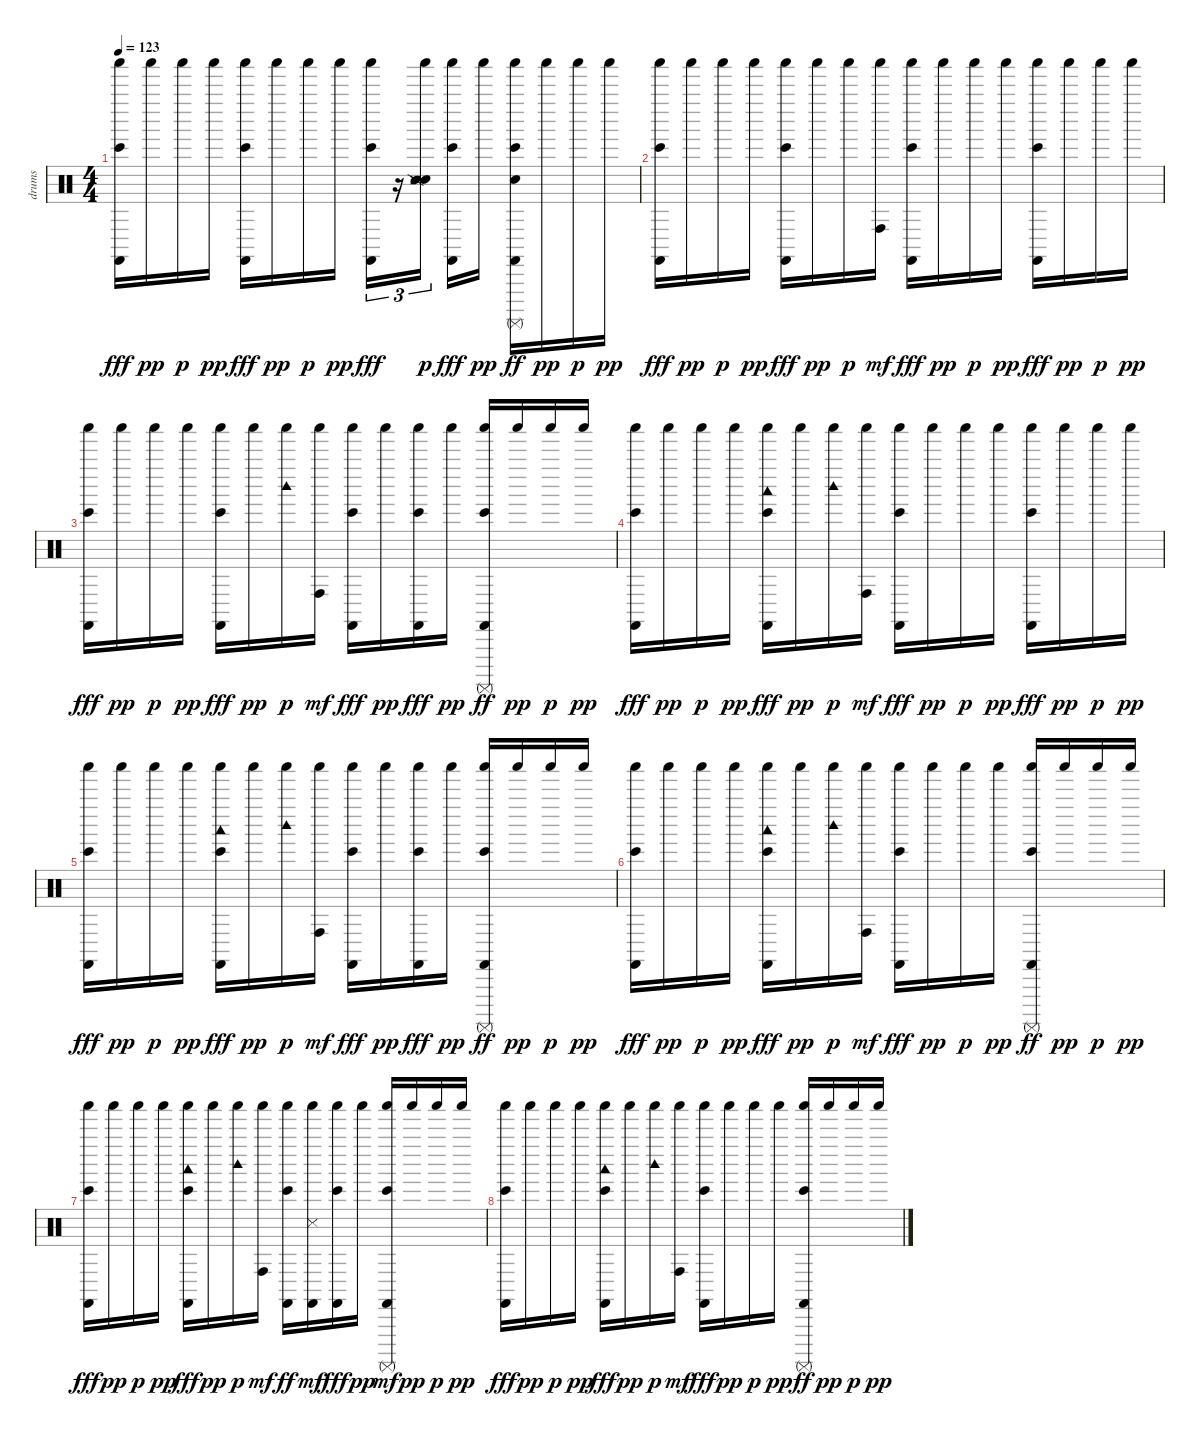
\track ("drums" "drums") {instrument percussion}
\staff {score}
\articulation defaults
\ts (4 4)
\tempo 123
\clef neutral
\ks c
("Bongo High (hit)" "Castanets (hit)" "Shaker (hit)").16{dy fff} "Shaker (hit)".16{dy pp} "Shaker (hit)".16{dy p} "Shaker (hit)".16{dy pp} ("Bongo High (hit)" "Castanets (hit)" "Shaker (hit)").16{dy fff} "Shaker (hit)".16{dy pp} "Shaker (hit)".16{dy p} "Shaker (hit)".16{dy pp} ("Bongo High (hit)" "Castanets (hit)" "Shaker (hit)").16{tu (3 2) dy fff} r.16{tu (3 2)} ("Shaker (hit)" "Electric Snare (hit)" "Snare (side stick) 3" "Snare (side stick) 2" "Metronome (hit)").16{tu (3 2) dy p beam splitsecondary} ("Bongo High (hit)" "Castanets (hit)" "Shaker (hit)").16{dy fff} "Shaker (hit)".16{dy pp} ("Bongo High (hit)" "Castanets (hit)" "Shaker (hit)" "Surdo (mute)" "Hand Clap (hit)").16{dy ff} "Shaker (hit)".16{dy pp} "Shaker (hit)".16{dy p} "Shaker (hit)".16{dy pp} |
("Bongo High (hit)" "Castanets (hit)" "Shaker (hit)").16{dy fff} "Shaker (hit)".16{dy pp} "Shaker (hit)".16{dy p} "Shaker (hit)".16{dy pp} ("Bongo High (hit)" "Castanets (hit)" "Shaker (hit)").16{dy fff} "Shaker (hit)".16{dy pp} "Shaker (hit)".16{dy p} ("Shaker (hit)" "Conga high (hit)").16{dy mf} ("Bongo High (hit)" "Castanets (hit)" "Shaker (hit)").16{dy fff} "Shaker (hit)".16{dy pp} "Shaker (hit)".16{dy p} "Shaker (hit)".16{dy pp} ("Bongo High (hit)" "Castanets (hit)" "Shaker (hit)").16{dy fff} "Shaker (hit)".16{dy pp} "Shaker (hit)".16{dy p} "Shaker (hit)".16{dy pp} |
("Bongo High (hit)" "Castanets (hit)" "Shaker (hit)").16{dy fff} "Shaker (hit)".16{dy pp} "Shaker (hit)".16{dy p} "Shaker (hit)".16{dy pp} ("Bongo High (hit)" "Castanets (hit)" "Shaker (hit)").16{dy fff} "Shaker (hit)".16{dy pp} ("Shaker (hit)" "Woodblock high (hit)").16{dy p} ("Shaker (hit)" "Conga high (hit)").16{dy mf} ("Bongo High (hit)" "Castanets (hit)" "Shaker (hit)").16{dy fff} "Shaker (hit)".16{dy pp} ("Bongo High (hit)" "Castanets (hit)" "Shaker (hit)").16{dy fff} "Shaker (hit)".16{dy pp} ("Bongo High (hit)" "Castanets (hit)" "Shaker (hit)" "Surdo (mute)").16{dy ff} "Shaker (hit)".16{dy pp} "Shaker (hit)".16{dy p} "Shaker (hit)".16{dy pp} |
("Bongo High (hit)" "Castanets (hit)" "Shaker (hit)").16{dy fff} "Shaker (hit)".16{dy pp} "Shaker (hit)".16{dy p} "Shaker (hit)".16{dy pp} ("Bongo High (hit)" "Castanets (hit)" "Shaker (hit)" "Woodblock low (hit)").16{dy fff} "Shaker (hit)".16{dy pp} ("Shaker (hit)" "Woodblock high (hit)").16{dy p} ("Shaker (hit)" "Conga high (hit)").16{dy mf} ("Bongo High (hit)" "Castanets (hit)" "Shaker (hit)").16{dy fff} "Shaker (hit)".16{dy pp} "Shaker (hit)".16{dy p} "Shaker (hit)".16{dy pp} ("Bongo High (hit)" "Castanets (hit)" "Shaker (hit)").16{dy fff} "Shaker (hit)".16{dy pp} "Shaker (hit)".16{dy p} "Shaker (hit)".16{dy pp} |
("Bongo High (hit)" "Castanets (hit)" "Shaker (hit)").16{dy fff} "Shaker (hit)".16{dy pp} "Shaker (hit)".16{dy p} "Shaker (hit)".16{dy pp} ("Bongo High (hit)" "Castanets (hit)" "Shaker (hit)" "Woodblock low (hit)").16{dy fff} "Shaker (hit)".16{dy pp} ("Shaker (hit)" "Woodblock high (hit)").16{dy p} ("Shaker (hit)" "Conga high (hit)").16{dy mf} ("Bongo High (hit)" "Castanets (hit)" "Shaker (hit)").16{dy fff} "Shaker (hit)".16{dy pp} ("Bongo High (hit)" "Castanets (hit)" "Shaker (hit)").16{dy fff} "Shaker (hit)".16{dy pp} ("Bongo High (hit)" "Castanets (hit)" "Shaker (hit)" "Surdo (mute)").16{dy ff} "Shaker (hit)".16{dy pp} "Shaker (hit)".16{dy p} "Shaker (hit)".16{dy pp} |
("Bongo High (hit)" "Castanets (hit)" "Shaker (hit)").16{dy fff} "Shaker (hit)".16{dy pp} "Shaker (hit)".16{dy p} "Shaker (hit)".16{dy pp} ("Bongo High (hit)" "Castanets (hit)" "Shaker (hit)" "Woodblock low (hit)").16{dy fff} "Shaker (hit)".16{dy pp} ("Shaker (hit)" "Woodblock high (hit)").16{dy p} ("Shaker (hit)" "Conga high (hit)").16{dy mf} ("Bongo High (hit)" "Castanets (hit)" "Shaker (hit)").16{dy fff} "Shaker (hit)".16{dy pp} "Shaker (hit)".16{dy p} "Shaker (hit)".16{dy pp} ("Bongo High (hit)" "Castanets (hit)" "Shaker (hit)" "Surdo (mute)").16{dy ff} "Shaker (hit)".16{dy pp} "Shaker (hit)".16{dy p} "Shaker (hit)".16{dy pp} |
("Bongo High (hit)" "Castanets (hit)" "Shaker (hit)").16{dy fff} "Shaker (hit)".16{dy pp} "Shaker (hit)".16{dy p} "Shaker (hit)".16{dy pp} ("Bongo High (hit)" "Castanets (hit)" "Shaker (hit)" "Woodblock low (hit)").16{dy fff} "Shaker (hit)".16{dy pp} ("Shaker (hit)" "Woodblock high (hit)").16{dy p} ("Shaker (hit)" "Conga high (hit)").16{dy mf} ("Bongo High (hit)" "Castanets (hit)" "Shaker (hit)").16{dy ff} ("Shaker (hit)" "Snare (side stick) 3" "Castanets (hit)").16{dy mf} ("Bongo High (hit)" "Castanets (hit)" "Shaker (hit)").16{dy fff} "Shaker (hit)".16{dy pp} ("Bongo High (hit)" "Castanets (hit)" "Shaker (hit)" "Surdo (mute)").16{dy mf} "Shaker (hit)".16{dy pp} "Shaker (hit)".16{dy p} "Shaker (hit)".16{dy pp} |
("Bongo High (hit)" "Castanets (hit)" "Shaker (hit)").16{dy fff} "Shaker (hit)".16{dy pp} "Shaker (hit)".16{dy p} "Shaker (hit)".16{dy pp} ("Bongo High (hit)" "Castanets (hit)" "Shaker (hit)" "Woodblock low (hit)").16{dy fff} "Shaker (hit)".16{dy pp} ("Shaker (hit)" "Woodblock high (hit)").16{dy p} ("Shaker (hit)" "Conga high (hit)").16{dy mf} ("Bongo High (hit)" "Castanets (hit)" "Shaker (hit)").16{dy fff} "Shaker (hit)".16{dy pp} "Shaker (hit)".16{dy p} "Shaker (hit)".16{dy pp} ("Bongo High (hit)" "Castanets (hit)" "Shaker (hit)" "Surdo (mute)").16{dy ff} "Shaker (hit)".16{dy pp} "Shaker (hit)".16{dy p} "Shaker (hit)".16{dy pp}
